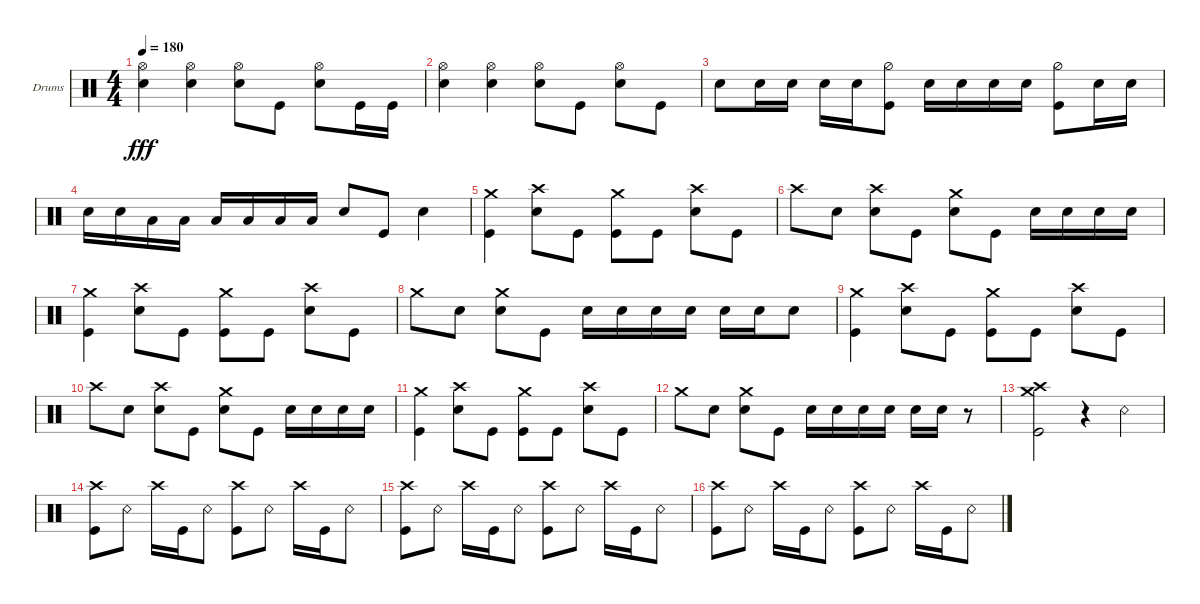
\defaultSystemsLayout 4
\bracketExtendMode groupsimilarinstruments
\firstSystemTrackNameOrientation horizontal
\otherSystemsTrackNameOrientation horizontal
\track ("Drumkit" "Drums") {instrument percussion}
\staff {score}
\articulation defaults
\ts (4 4)
\tempo 180
\clef neutral
\ks c
("Snare (hit) 2" "Hi-Hat (open)").4{dy fff} ("Snare (hit) 2" "Hi-Hat (open)").4 ("Snare (hit) 2" "Hi-Hat (open)").8 "Kick (hit)".8 ("Snare (hit) 2" "Hi-Hat (open)").8 "Kick (hit)".16 "Kick (hit)".16 |
("Snare (hit) 2" "Hi-Hat (open)").4 ("Snare (hit) 2" "Hi-Hat (open)").4 ("Snare (hit) 2" "Hi-Hat (open)").8 "Kick (hit)".8 ("Snare (hit) 2" "Hi-Hat (open)").8 "Kick (hit)".8 |
"Snare (hit) 2".8 "Snare (hit) 2".16 "Snare (hit) 2".16 "Snare (hit) 2".16 "Snare (hit) 2".16 ("Kick (hit)" "Hi-Hat (half)").8 "Snare (hit) 2".16 "Snare (hit) 2".16 "Snare (hit) 2".16 "Snare (hit) 2".16 ("Kick (hit)" "Hi-Hat (half)").8 "Snare (hit) 2".16 "Snare (hit) 2".16 |
"Snare (hit) 2".16 "Snare (hit) 2".16 "Low Tom (hit)".16 "Low Tom (hit)".16 "Low Tom (hit)".16 "Low Tom (hit)".16 "Low Tom (hit)".16 "Low Tom (hit)".16 "Snare (hit) 2".8 "Kick (hit)".8 "Snare (hit) 2".4 |
("Kick (hit)" "Crash medium (hit)").4 ("Snare (hit) 2" "Crash high (hit)").8 "Kick (hit)".8 ("Kick (hit)" "Crash medium (hit)").8 "Kick (hit)".8 ("Snare (hit) 2" "Crash high (hit)").8 "Kick (hit)".8 |
"Crash high (hit)".8 "Snare (hit) 2".8 ("Snare (hit) 2" "Crash high (hit)").8 "Kick (hit)".8 ("Snare (hit) 2" "Crash medium (hit)").8 "Kick (hit)".8 "Snare (hit) 2".16 "Snare (hit) 2".16 "Snare (hit) 2".16 "Snare (hit) 2".16 |
("Kick (hit)" "Crash medium (hit)").4 ("Snare (hit) 2" "Crash high (hit)").8 "Kick (hit)".8 ("Kick (hit)" "Crash medium (hit)").8 "Kick (hit)".8 ("Snare (hit) 2" "Crash high (hit)").8 "Kick (hit)".8 |
"Crash medium (hit)".8 "Snare (hit) 2".8 ("Snare (hit) 2" "Crash medium (hit)").8 "Kick (hit)".8 "Snare (hit) 2".16 "Snare (hit) 2".16 "Snare (hit) 2".16 "Snare (hit) 2".16 "Snare (hit) 2".16 "Snare (hit) 2".16 "Snare (hit) 2".8 |
("Kick (hit)" "Crash medium (hit)").4 ("Snare (hit) 2" "Crash high (hit)").8 "Kick (hit)".8 ("Kick (hit)" "Crash medium (hit)").8 "Kick (hit)".8 ("Snare (hit) 2" "Crash high (hit)").8 "Kick (hit)".8 |
"Crash high (hit)".8 "Snare (hit) 2".8 ("Snare (hit) 2" "Crash high (hit)").8 "Kick (hit)".8 ("Snare (hit) 2" "Crash medium (hit)").8 "Kick (hit)".8 "Snare (hit) 2".16 "Snare (hit) 2".16 "Snare (hit) 2".16 "Snare (hit) 2".16 |
("Kick (hit)" "Crash medium (hit)").4 ("Snare (hit) 2" "Crash high (hit)").8 "Kick (hit)".8 ("Kick (hit)" "Crash medium (hit)").8 "Kick (hit)".8 ("Snare (hit) 2" "Crash high (hit)").8 "Kick (hit)".8 |
"Crash medium (hit)".8 "Snare (hit) 2".8 ("Snare (hit) 2" "Crash medium (hit)").8 "Kick (hit)".8 "Snare (hit) 2".16 "Snare (hit) 2".16 "Snare (hit) 2".16 "Snare (hit) 2".16 "Snare (hit) 2".16 "Snare (hit) 2".16 r.8 |
("Crash high (hit)" "Crash medium (hit)" "Kick (hit)").2 r.4 "Snare (rim shot)".4 |
("Kick (hit)" "Crash high (hit)").8 "Snare (rim shot)".8 "Crash high (hit)".16 "Kick (hit)".16 "Snare (rim shot)".8 ("Kick (hit)" "Crash high (hit)").8 "Snare (rim shot)".8 "Crash high (hit)".16 "Kick (hit)".16 "Snare (rim shot)".8 |
("Kick (hit)" "Crash high (hit)").8 "Snare (rim shot)".8 "Crash high (hit)".16 "Kick (hit)".16 "Snare (rim shot)".8 ("Kick (hit)" "Crash high (hit)").8 "Snare (rim shot)".8 "Crash high (hit)".16 "Kick (hit)".16 "Snare (rim shot)".8 |
("Kick (hit)" "Crash high (hit)").8 "Snare (rim shot)".8 "Crash high (hit)".16 "Kick (hit)".16 "Snare (rim shot)".8 ("Kick (hit)" "Crash high (hit)").8 "Snare (rim shot)".8 "Crash high (hit)".16 "Kick (hit)".16 "Snare (rim shot)".8
